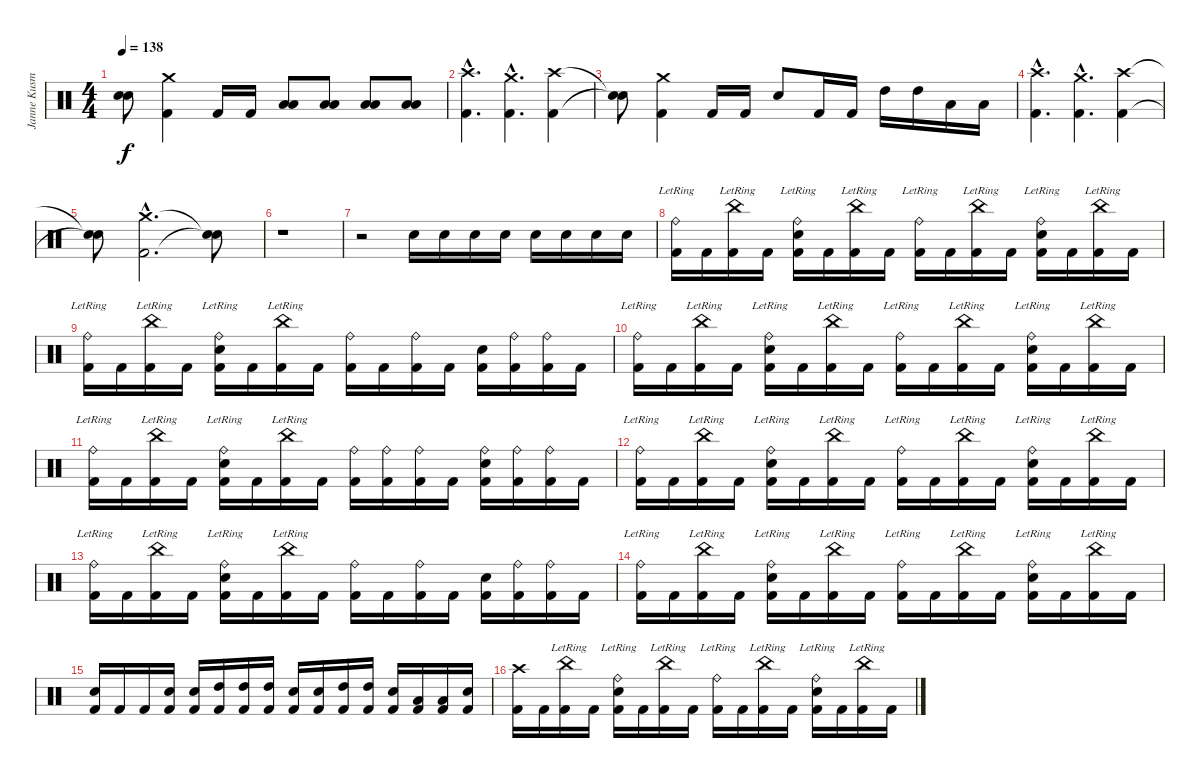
\track ("Janne Kusmin" "Janne Kusm") {instrument percussion}
\staff {score}
\articulation defaults
\ts (4 4)
\tempo 138
\clef neutral
\ks c
("Snare (hit)"{t} "Snare (hit)"{t}).8{dy f} ("Crash medium (hit)" "Kick (hit) 2").4 "Kick (hit) 2".16 "Kick (hit) 2".16 ("Low Tom (hit)" "Low Floor Tom (hit)").8 ("Low Tom (hit)" "Low Floor Tom (hit)").8 ("Low Tom (hit)" "Low Floor Tom (hit)").8 ("Low Tom (hit)" "Low Floor Tom (hit)").8 |
("Crash high (hit)"{hac} "Kick (hit) 2"{hac}).4{d} ("Crash medium (hit)"{hac} "Kick (hit) 2"{hac}).4{d} ("Crash high (hit)" "Kick (hit) 2").4 |
("Snare (hit)"{t} "Snare (hit)"{t}).8 ("Crash medium (hit)" "Kick (hit) 2").4 "Kick (hit) 2".16 "Kick (hit) 2".16 "Electric Snare (hit)".8 "Kick (hit) 2".16 "Kick (hit) 2".16 "High Tom (hit)".16 "High Tom (hit)".16 "Low Tom (hit)".16 "Low Tom (hit)".16 |
("Crash high (hit)"{hac} "Kick (hit) 2"{hac}).4{d} ("Crash medium (hit)"{hac} "Kick (hit) 2"{hac}).4{d} ("Crash high (hit)" "Kick (hit) 2").4 |
("Snare (hit)"{t} "Snare (hit)"{t}).8 ("Crash medium (hit)"{hac} "Kick (hit) 2"{hac}).2{d} ("Snare (hit)"{t} "Snare (hit)"{t}).8 |
r.1 |
r.2 "Electric Snare (hit)".16 "Electric Snare (hit)".16 "Electric Snare (hit)".16 "Electric Snare (hit)".16 "Electric Snare (hit)".16 "Electric Snare (hit)".16 "Electric Snare (hit)".16 "Electric Snare (hit)".16 |
("Ride (bell)"{lr} "Kick (hit) 2").16 "Kick (hit) 2".16 ("China (hit)"{lr} "Kick (hit) 2").16 "Kick (hit) 2".16 ("Ride (bell)"{lr} "Electric Snare (hit)" "Kick (hit) 2").16 "Kick (hit) 2".16 ("China (hit)"{lr} "Kick (hit) 2").16 "Kick (hit) 2".16 ("Ride (bell)"{lr} "Kick (hit) 2").16 "Kick (hit) 2".16 ("China (hit)"{lr} "Kick (hit) 2").16 "Kick (hit) 2".16 ("Ride (bell)"{lr} "Electric Snare (hit)" "Kick (hit) 2").16 "Kick (hit) 2".16 ("China (hit)"{lr} "Kick (hit) 2").16 "Kick (hit) 2".16 |
("Ride (bell)"{lr} "Kick (hit) 2").16 "Kick (hit) 2".16 ("China (hit)"{lr} "Kick (hit) 2").16 "Kick (hit) 2".16 ("Ride (bell)"{lr} "Electric Snare (hit)" "Kick (hit) 2").16 "Kick (hit) 2".16 ("China (hit)"{lr} "Kick (hit) 2").16 "Kick (hit) 2".16 ("Ride (bell)" "Kick (hit) 2").16 "Kick (hit) 2".16 ("Ride (bell)" "Kick (hit) 2").16 "Kick (hit) 2".16 ("Electric Snare (hit)" "Kick (hit) 2").16 ("Ride (bell)" "Kick (hit) 2").16 ("Ride (bell)" "Kick (hit) 2").16 "Kick (hit) 2".16 |
("Ride (bell)"{lr} "Kick (hit) 2").16 "Kick (hit) 2".16 ("China (hit)"{lr} "Kick (hit) 2").16 "Kick (hit) 2".16 ("Ride (bell)"{lr} "Electric Snare (hit)" "Kick (hit) 2").16 "Kick (hit) 2".16 ("China (hit)"{lr} "Kick (hit) 2").16 "Kick (hit) 2".16 ("Ride (bell)"{lr} "Kick (hit) 2").16 "Kick (hit) 2".16 ("China (hit)"{lr} "Kick (hit) 2").16 "Kick (hit) 2".16 ("Ride (bell)"{lr} "Electric Snare (hit)" "Kick (hit) 2").16 "Kick (hit) 2".16 ("China (hit)"{lr} "Kick (hit) 2").16 "Kick (hit) 2".16 |
("Ride (bell)"{lr} "Kick (hit) 2").16 "Kick (hit) 2".16 ("China (hit)"{lr} "Kick (hit) 2").16 "Kick (hit) 2".16 ("Ride (bell)"{lr} "Electric Snare (hit)" "Kick (hit) 2").16 "Kick (hit) 2".16 ("China (hit)"{lr} "Kick (hit) 2").16 "Kick (hit) 2".16 ("Ride (bell)" "Kick (hit) 2").16 ("Ride (bell)" "Kick (hit) 2").16 ("Ride (bell)" "Kick (hit) 2").16 "Kick (hit) 2".16 ("Ride (bell)" "Electric Snare (hit)" "Kick (hit) 2").16 ("Ride (bell)" "Kick (hit) 2").16 ("Ride (bell)" "Kick (hit) 2").16 "Kick (hit) 2".16 |
("Ride (bell)"{lr} "Kick (hit) 2").16 "Kick (hit) 2".16 ("China (hit)"{lr} "Kick (hit) 2").16 "Kick (hit) 2".16 ("Ride (bell)"{lr} "Electric Snare (hit)" "Kick (hit) 2").16 "Kick (hit) 2".16 ("China (hit)"{lr} "Kick (hit) 2").16 "Kick (hit) 2".16 ("Ride (bell)"{lr} "Kick (hit) 2").16 "Kick (hit) 2".16 ("China (hit)"{lr} "Kick (hit) 2").16 "Kick (hit) 2".16 ("Ride (bell)"{lr} "Electric Snare (hit)" "Kick (hit) 2").16 "Kick (hit) 2".16 ("China (hit)"{lr} "Kick (hit) 2").16 "Kick (hit) 2".16 |
("Ride (bell)"{lr} "Kick (hit) 2").16 "Kick (hit) 2".16 ("China (hit)"{lr} "Kick (hit) 2").16 "Kick (hit) 2".16 ("Ride (bell)"{lr} "Electric Snare (hit)" "Kick (hit) 2").16 "Kick (hit) 2".16 ("China (hit)"{lr} "Kick (hit) 2").16 "Kick (hit) 2".16 ("Ride (bell)" "Kick (hit) 2").16 "Kick (hit) 2".16 ("Ride (bell)" "Kick (hit) 2").16 "Kick (hit) 2".16 ("Electric Snare (hit)" "Kick (hit) 2").16 ("Ride (bell)" "Kick (hit) 2").16 ("Ride (bell)" "Kick (hit) 2").16 "Kick (hit) 2".16 |
("Ride (bell)"{lr} "Kick (hit) 2").16 "Kick (hit) 2".16 ("China (hit)"{lr} "Kick (hit) 2").16 "Kick (hit) 2".16 ("Ride (bell)"{lr} "Electric Snare (hit)" "Kick (hit) 2").16 "Kick (hit) 2".16 ("China (hit)"{lr} "Kick (hit) 2").16 "Kick (hit) 2".16 ("Ride (bell)"{lr} "Kick (hit) 2").16 "Kick (hit) 2".16 ("China (hit)"{lr} "Kick (hit) 2").16 "Kick (hit) 2".16 ("Ride (bell)"{lr} "Electric Snare (hit)" "Kick (hit) 2").16 "Kick (hit) 2".16 ("China (hit)"{lr} "Kick (hit) 2").16 "Kick (hit) 2".16 |
("Electric Snare (hit)" "Kick (hit) 2").16 "Kick (hit) 2".16 "Kick (hit) 2".16 ("Electric Snare (hit)" "Kick (hit) 2").16 ("Electric Snare (hit)" "Kick (hit) 2").16 ("High Tom (hit)" "Kick (hit) 2").16 ("High Tom (hit)" "Kick (hit) 2").16 ("High Tom (hit)" "Kick (hit) 2").16 ("Electric Snare (hit)" "Kick (hit) 2").16 ("Electric Snare (hit)" "Kick (hit) 2").16 ("High Tom (hit)" "Kick (hit) 2").16 ("High Tom (hit)" "Kick (hit) 2").16 ("Electric Snare (hit)" "Kick (hit) 2").16 ("Low Tom (hit)" "Kick (hit) 2").16 ("Low Tom (hit)" "Kick (hit) 2").16 ("Electric Snare (hit)" "Kick (hit) 2").16 |
("Crash high (hit)" "Kick (hit) 2").16 "Kick (hit) 2".16 ("China (hit)"{lr} "Kick (hit) 2").16 "Kick (hit) 2".16 ("Ride (bell)"{lr} "Electric Snare (hit)" "Kick (hit) 2").16 "Kick (hit) 2".16 ("China (hit)"{lr} "Kick (hit) 2").16 "Kick (hit) 2".16 ("Ride (bell)"{lr} "Kick (hit) 2").16 "Kick (hit) 2".16 ("China (hit)"{lr} "Kick (hit) 2").16 "Kick (hit) 2".16 ("Ride (bell)"{lr} "Electric Snare (hit)" "Kick (hit) 2").16 "Kick (hit) 2".16 ("China (hit)"{lr} "Kick (hit) 2").16 "Kick (hit) 2".16
